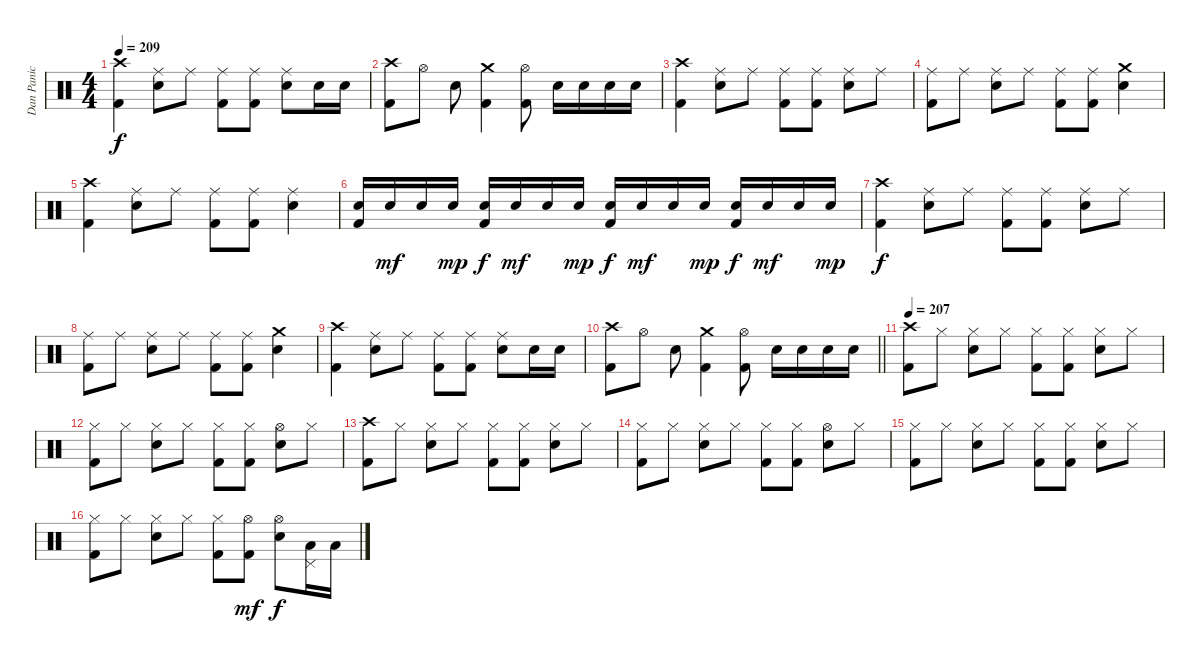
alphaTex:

\track ("Dan Panic" "Dan Panic") {instrument percussion}
\staff {score}
\articulation defaults
\ts (4 4)
\tempo 209
\clef neutral
\ks c
("Crash high (hit)" "Kick (hit) 2").4{dy f} ("Ride (middle)" "Electric Snare (hit)").8 "Ride (middle)".8 ("Ride (middle)" "Kick (hit) 2").8 ("Ride (middle)" "Kick (hit) 2").8 ("Ride (middle)" "Electric Snare (hit)").8 "Electric Snare (hit)".16 "Electric Snare (hit)".16 |
("Crash high (hit)" "Kick (hit) 2").8 "Hi-Hat (open)".8 "Electric Snare (hit)".8 ("Crash medium (hit)" "Kick (hit) 2").4 ("Hi-Hat (open)" "Kick (hit) 2").8 "Electric Snare (hit)".16 "Electric Snare (hit)".16 "Electric Snare (hit)".16 "Electric Snare (hit)".16 |
("Crash high (hit)" "Kick (hit) 2").4 ("Ride (middle)" "Electric Snare (hit)").8 "Ride (middle)".8 ("Ride (middle)" "Kick (hit) 2").8 ("Ride (middle)" "Kick (hit) 2").8 ("Ride (middle)" "Electric Snare (hit)").8 "Ride (middle)".8 |
("Ride (middle)" "Kick (hit) 2").8 "Ride (middle)".8 ("Ride (middle)" "Electric Snare (hit)").8 "Ride (middle)".8 ("Ride (middle)" "Kick (hit) 2").8 ("Ride (middle)" "Kick (hit) 2").8 ("Crash medium (hit)" "Electric Snare (hit)").4 |
("Crash high (hit)" "Kick (hit) 2").4 ("Ride (middle)" "Electric Snare (hit)").8 "Ride (middle)".8 ("Ride (middle)" "Kick (hit) 2").8 ("Ride (middle)" "Kick (hit) 2").8 ("Ride (middle)" "Electric Snare (hit)").4 |
("Electric Snare (hit)" "Kick (hit) 2").16 "Electric Snare (hit)".16{dy mf} "Electric Snare (hit)".16 "Electric Snare (hit)".16{dy mp} ("Electric Snare (hit)" "Kick (hit) 2").16{dy f} "Electric Snare (hit)".16{dy mf} "Electric Snare (hit)".16 "Electric Snare (hit)".16{dy mp} ("Electric Snare (hit)" "Kick (hit) 2").16{dy f} "Electric Snare (hit)".16{dy mf} "Electric Snare (hit)".16 "Electric Snare (hit)".16{dy mp} ("Electric Snare (hit)" "Kick (hit) 2").16{dy f} "Electric Snare (hit)".16{dy mf} "Electric Snare (hit)".16 "Electric Snare (hit)".16{dy mp} |
("Crash high (hit)" "Kick (hit) 2").4{dy f} ("Ride (middle)" "Electric Snare (hit)").8 "Ride (middle)".8 ("Ride (middle)" "Kick (hit) 2").8 ("Ride (middle)" "Kick (hit) 2").8 ("Ride (middle)" "Electric Snare (hit)").8 "Ride (middle)".8 |
("Ride (middle)" "Kick (hit) 2").8 "Ride (middle)".8 ("Ride (middle)" "Electric Snare (hit)").8 "Ride (middle)".8 ("Ride (middle)" "Kick (hit) 2").8 ("Ride (middle)" "Kick (hit) 2").8 ("Crash medium (hit)" "Electric Snare (hit)").4 |
("Crash high (hit)" "Kick (hit) 2").4 ("Ride (middle)" "Electric Snare (hit)").8 "Ride (middle)".8 ("Ride (middle)" "Kick (hit) 2").8 ("Ride (middle)" "Kick (hit) 2").8 ("Ride (middle)" "Electric Snare (hit)").8 "Electric Snare (hit)".16 "Electric Snare (hit)".16 |
\barLineRight lightlight
("Crash high (hit)" "Kick (hit) 2").8 "Hi-Hat (open)".8 "Electric Snare (hit)".8 ("Crash medium (hit)" "Kick (hit) 2").4 ("Hi-Hat (open)" "Kick (hit) 2").8 "Electric Snare (hit)".16 "Electric Snare (hit)".16 "Electric Snare (hit)".16 "Electric Snare (hit)".16 |
\section ("" "")
\tempo 207
("Crash high (hit)" "Kick (hit) 2").8 "Hi-Hat (closed)".8 ("Hi-Hat (closed)" "Electric Snare (hit)").8 "Hi-Hat (closed)".8 ("Hi-Hat (closed)" "Kick (hit) 2").8 ("Hi-Hat (closed)" "Kick (hit) 2").8 ("Hi-Hat (closed)" "Electric Snare (hit)").8 "Hi-Hat (closed)".8 |
("Hi-Hat (closed)" "Kick (hit) 2").8 "Hi-Hat (closed)".8 ("Hi-Hat (closed)" "Electric Snare (hit)").8 "Hi-Hat (closed)".8 ("Hi-Hat (closed)" "Kick (hit) 2").8 ("Hi-Hat (closed)" "Kick (hit) 2").8 ("Hi-Hat (open)" "Electric Snare (hit)").8 "Hi-Hat (closed)".8 |
("Crash high (hit)" "Kick (hit) 2").8 "Hi-Hat (closed)".8 ("Hi-Hat (closed)" "Electric Snare (hit)").8 "Hi-Hat (closed)".8 ("Hi-Hat (closed)" "Kick (hit) 2").8 ("Hi-Hat (closed)" "Kick (hit) 2").8 ("Hi-Hat (closed)" "Electric Snare (hit)").8 "Hi-Hat (closed)".8 |
("Hi-Hat (closed)" "Kick (hit) 2").8 "Hi-Hat (closed)".8 ("Hi-Hat (closed)" "Electric Snare (hit)").8 "Hi-Hat (closed)".8 ("Hi-Hat (closed)" "Kick (hit) 2").8 ("Hi-Hat (closed)" "Kick (hit) 2").8 ("Hi-Hat (open)" "Electric Snare (hit)").8 "Hi-Hat (closed)".8 |
("Hi-Hat (closed)" "Kick (hit) 2").8 "Hi-Hat (closed)".8 ("Hi-Hat (closed)" "Electric Snare (hit)").8 "Hi-Hat (closed)".8 ("Hi-Hat (closed)" "Kick (hit) 2").8 ("Hi-Hat (closed)" "Kick (hit) 2").8 ("Hi-Hat (closed)" "Electric Snare (hit)").8 "Hi-Hat (closed)".8 |
("Hi-Hat (closed)" "Kick (hit) 2").8 "Hi-Hat (closed)".8 ("Hi-Hat (closed)" "Electric Snare (hit)").8 "Hi-Hat (closed)".8 ("Hi-Hat (closed)" "Kick (hit) 2").8 ("Hi-Hat (open)" "Kick (hit) 2").8{dy mf} ("Hi-Hat (open)" "Electric Snare (hit)").8{dy f} ("Pedal Hi-Hat (hit)" "Low Tom (hit)").16 "Low Floor Tom (hit)".16
